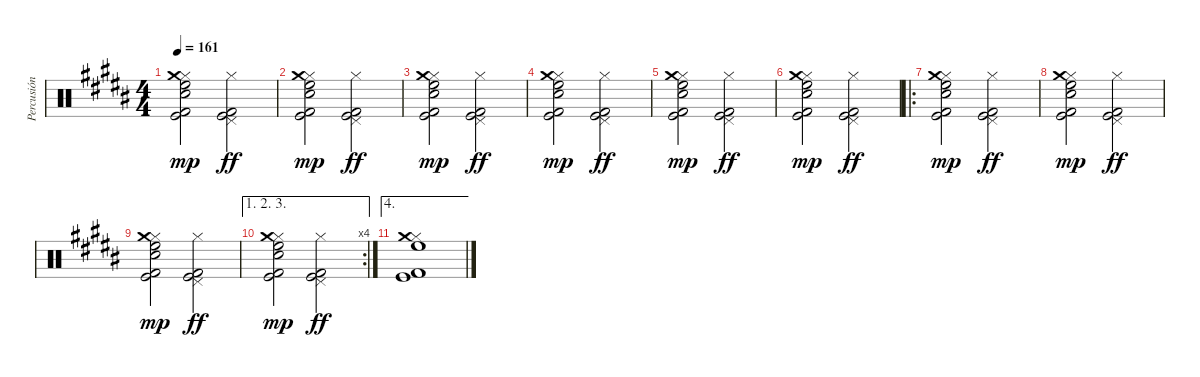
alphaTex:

\track ("Percusión" "Percusión") {instrument percussion}
\staff {score}
\articulation defaults
\ts (4 4)
\tempo 161
\clef neutral
\ks b
("Hi-Hat (closed)" "High Floor Tom (hit)" "Snare (hit) 2" "Crash medium (hit)" "Kick (hit)" "Kick (hit) 2").2{dy mp} ("Hi-Hat (closed)" "Pedal Hi-Hat (hit)" "Kick (hit)" "Kick (hit) 2").2{dy ff} |
("Hi-Hat (closed)" "High Floor Tom (hit)" "Snare (hit) 2" "Crash medium (hit)" "Kick (hit)" "Kick (hit) 2").2{dy mp} ("Hi-Hat (closed)" "Pedal Hi-Hat (hit)" "Kick (hit)" "Kick (hit) 2").2{dy ff} |
("Hi-Hat (closed)" "High Floor Tom (hit)" "Snare (hit) 2" "Crash medium (hit)" "Kick (hit)" "Kick (hit) 2").2{dy mp} ("Hi-Hat (closed)" "Pedal Hi-Hat (hit)" "Kick (hit)" "Kick (hit) 2").2{dy ff} |
("Hi-Hat (closed)" "High Floor Tom (hit)" "Snare (hit) 2" "Crash medium (hit)" "Kick (hit)" "Kick (hit) 2").2{dy mp} ("Hi-Hat (closed)" "Pedal Hi-Hat (hit)" "Kick (hit)" "Kick (hit) 2").2{dy ff} |
("Hi-Hat (closed)" "High Floor Tom (hit)" "Snare (hit) 2" "Crash medium (hit)" "Kick (hit)" "Kick (hit) 2").2{dy mp} ("Hi-Hat (closed)" "Pedal Hi-Hat (hit)" "Kick (hit)" "Kick (hit) 2").2{dy ff} |
("Hi-Hat (closed)" "High Floor Tom (hit)" "Snare (hit) 2" "Crash medium (hit)" "Kick (hit)" "Kick (hit) 2").2{dy mp} ("Hi-Hat (closed)" "Pedal Hi-Hat (hit)" "Kick (hit)" "Kick (hit) 2").2{dy ff} |
\ro
("Hi-Hat (closed)" "High Floor Tom (hit)" "Snare (hit) 2" "Crash medium (hit)" "Kick (hit)" "Kick (hit) 2").2{dy mp} ("Hi-Hat (closed)" "Pedal Hi-Hat (hit)" "Kick (hit)" "Kick (hit) 2").2{dy ff} |
("Hi-Hat (closed)" "High Floor Tom (hit)" "Snare (hit) 2" "Crash medium (hit)" "Kick (hit)" "Kick (hit) 2").2{dy mp} ("Hi-Hat (closed)" "Pedal Hi-Hat (hit)" "Kick (hit)" "Kick (hit) 2").2{dy ff} |
("Hi-Hat (closed)" "High Floor Tom (hit)" "Snare (hit) 2" "Crash medium (hit)" "Kick (hit)" "Kick (hit) 2").2{dy mp} ("Hi-Hat (closed)" "Pedal Hi-Hat (hit)" "Kick (hit)" "Kick (hit) 2").2{dy ff} |
\ae (1 2 3)
\rc 4
("Hi-Hat (closed)" "High Floor Tom (hit)" "Snare (hit) 2" "Crash medium (hit)" "Kick (hit)" "Kick (hit) 2").2{dy mp} ("Hi-Hat (closed)" "Pedal Hi-Hat (hit)" "Kick (hit)" "Kick (hit) 2").2{dy ff} |
\ae 4
("Hi-Hat (closed)" "High Floor Tom (hit)" "Crash medium (hit)" "Kick (hit)" "Kick (hit) 2").1
